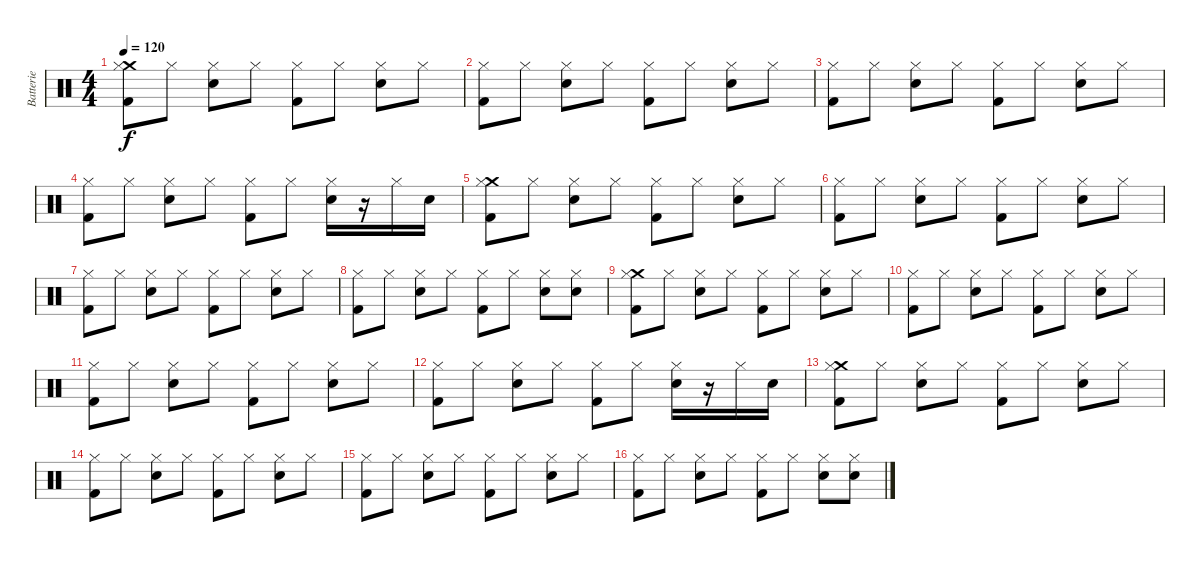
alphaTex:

\track ("Batterie" "Batterie") {instrument percussion}
\staff {score}
\articulation defaults
\ts (4 4)
\tempo 120
\clef neutral
\ks c
("Kick (hit) 2" "Crash medium (hit)" "Hi-Hat (closed)").8{dy f} "Hi-Hat (closed)".8 ("Snare (hit) 2" "Hi-Hat (closed)").8 "Hi-Hat (closed)".8 ("Kick (hit) 2" "Hi-Hat (closed)").8 "Hi-Hat (closed)".8 ("Snare (hit) 2" "Hi-Hat (closed)").8 "Hi-Hat (closed)".8 |
("Kick (hit) 2" "Hi-Hat (closed)").8 "Hi-Hat (closed)".8 ("Snare (hit) 2" "Hi-Hat (closed)").8 "Hi-Hat (closed)".8 ("Kick (hit) 2" "Hi-Hat (closed)").8 "Hi-Hat (closed)".8 ("Snare (hit) 2" "Hi-Hat (closed)").8 "Hi-Hat (closed)".8 |
("Kick (hit) 2" "Hi-Hat (closed)").8 "Hi-Hat (closed)".8 ("Snare (hit) 2" "Hi-Hat (closed)").8 "Hi-Hat (closed)".8 ("Kick (hit) 2" "Hi-Hat (closed)").8 "Hi-Hat (closed)".8 ("Snare (hit) 2" "Hi-Hat (closed)").8 "Hi-Hat (closed)".8 |
("Kick (hit) 2" "Hi-Hat (closed)").8 "Hi-Hat (closed)".8 ("Snare (hit) 2" "Hi-Hat (closed)").8 "Hi-Hat (closed)".8 ("Kick (hit) 2" "Hi-Hat (closed)").8 "Hi-Hat (closed)".8 ("Snare (hit) 2" "Hi-Hat (closed)").16 r.16 "Hi-Hat (closed)".16 "Snare (hit) 2".16 |
("Kick (hit) 2" "Crash medium (hit)" "Hi-Hat (closed)").8 "Hi-Hat (closed)".8 ("Snare (hit) 2" "Hi-Hat (closed)").8 "Hi-Hat (closed)".8 ("Kick (hit) 2" "Hi-Hat (closed)").8 "Hi-Hat (closed)".8 ("Snare (hit) 2" "Hi-Hat (closed)").8 "Hi-Hat (closed)".8 |
("Kick (hit) 2" "Hi-Hat (closed)").8 "Hi-Hat (closed)".8 ("Snare (hit) 2" "Hi-Hat (closed)").8 "Hi-Hat (closed)".8 ("Kick (hit) 2" "Hi-Hat (closed)").8 "Hi-Hat (closed)".8 ("Snare (hit) 2" "Hi-Hat (closed)").8 "Hi-Hat (closed)".8 |
("Kick (hit) 2" "Hi-Hat (closed)").8 "Hi-Hat (closed)".8 ("Snare (hit) 2" "Hi-Hat (closed)").8 "Hi-Hat (closed)".8 ("Kick (hit) 2" "Hi-Hat (closed)").8 "Hi-Hat (closed)".8 ("Snare (hit) 2" "Hi-Hat (closed)").8 "Hi-Hat (closed)".8 |
("Kick (hit) 2" "Hi-Hat (closed)").8 "Hi-Hat (closed)".8 ("Snare (hit) 2" "Hi-Hat (closed)").8 "Hi-Hat (closed)".8 ("Kick (hit) 2" "Hi-Hat (closed)").8 "Hi-Hat (closed)".8 ("Snare (hit) 2" "Hi-Hat (closed)").8 ("Snare (hit) 2" "Hi-Hat (closed)").8 |
("Kick (hit) 2" "Crash medium (hit)" "Hi-Hat (closed)").8 "Hi-Hat (closed)".8 ("Snare (hit) 2" "Hi-Hat (closed)").8 "Hi-Hat (closed)".8 ("Kick (hit) 2" "Hi-Hat (closed)").8 "Hi-Hat (closed)".8 ("Snare (hit) 2" "Hi-Hat (closed)").8 "Hi-Hat (closed)".8 |
("Kick (hit) 2" "Hi-Hat (closed)").8 "Hi-Hat (closed)".8 ("Snare (hit) 2" "Hi-Hat (closed)").8 "Hi-Hat (closed)".8 ("Kick (hit) 2" "Hi-Hat (closed)").8 "Hi-Hat (closed)".8 ("Snare (hit) 2" "Hi-Hat (closed)").8 "Hi-Hat (closed)".8 |
("Kick (hit) 2" "Hi-Hat (closed)").8 "Hi-Hat (closed)".8 ("Snare (hit) 2" "Hi-Hat (closed)").8 "Hi-Hat (closed)".8 ("Kick (hit) 2" "Hi-Hat (closed)").8 "Hi-Hat (closed)".8 ("Snare (hit) 2" "Hi-Hat (closed)").8 "Hi-Hat (closed)".8 |
("Kick (hit) 2" "Hi-Hat (closed)").8{volume 0} "Hi-Hat (closed)".8 ("Snare (hit) 2" "Hi-Hat (closed)").8 "Hi-Hat (closed)".8 ("Kick (hit) 2" "Hi-Hat (closed)").8 "Hi-Hat (closed)".8 ("Snare (hit) 2" "Hi-Hat (closed)").16 r.16 "Hi-Hat (closed)".16 "Snare (hit) 2".16 |
("Kick (hit) 2" "Crash medium (hit)" "Hi-Hat (closed)").8 "Hi-Hat (closed)".8 ("Snare (hit) 2" "Hi-Hat (closed)").8 "Hi-Hat (closed)".8 ("Kick (hit) 2" "Hi-Hat (closed)").8 "Hi-Hat (closed)".8 ("Snare (hit) 2" "Hi-Hat (closed)").8 "Hi-Hat (closed)".8 |
("Kick (hit) 2" "Hi-Hat (closed)").8 "Hi-Hat (closed)".8 ("Snare (hit) 2" "Hi-Hat (closed)").8 "Hi-Hat (closed)".8 ("Kick (hit) 2" "Hi-Hat (closed)").8 "Hi-Hat (closed)".8 ("Snare (hit) 2" "Hi-Hat (closed)").8 "Hi-Hat (closed)".8 |
("Kick (hit) 2" "Hi-Hat (closed)").8 "Hi-Hat (closed)".8 ("Snare (hit) 2" "Hi-Hat (closed)").8 "Hi-Hat (closed)".8 ("Kick (hit) 2" "Hi-Hat (closed)").8 "Hi-Hat (closed)".8 ("Snare (hit) 2" "Hi-Hat (closed)").8 "Hi-Hat (closed)".8 |
("Kick (hit) 2" "Hi-Hat (closed)").8 "Hi-Hat (closed)".8 ("Snare (hit) 2" "Hi-Hat (closed)").8 "Hi-Hat (closed)".8 ("Kick (hit) 2" "Hi-Hat (closed)").8 "Hi-Hat (closed)".8 ("Snare (hit) 2" "Hi-Hat (closed)").8 ("Snare (hit) 2" "Hi-Hat (closed)").8
